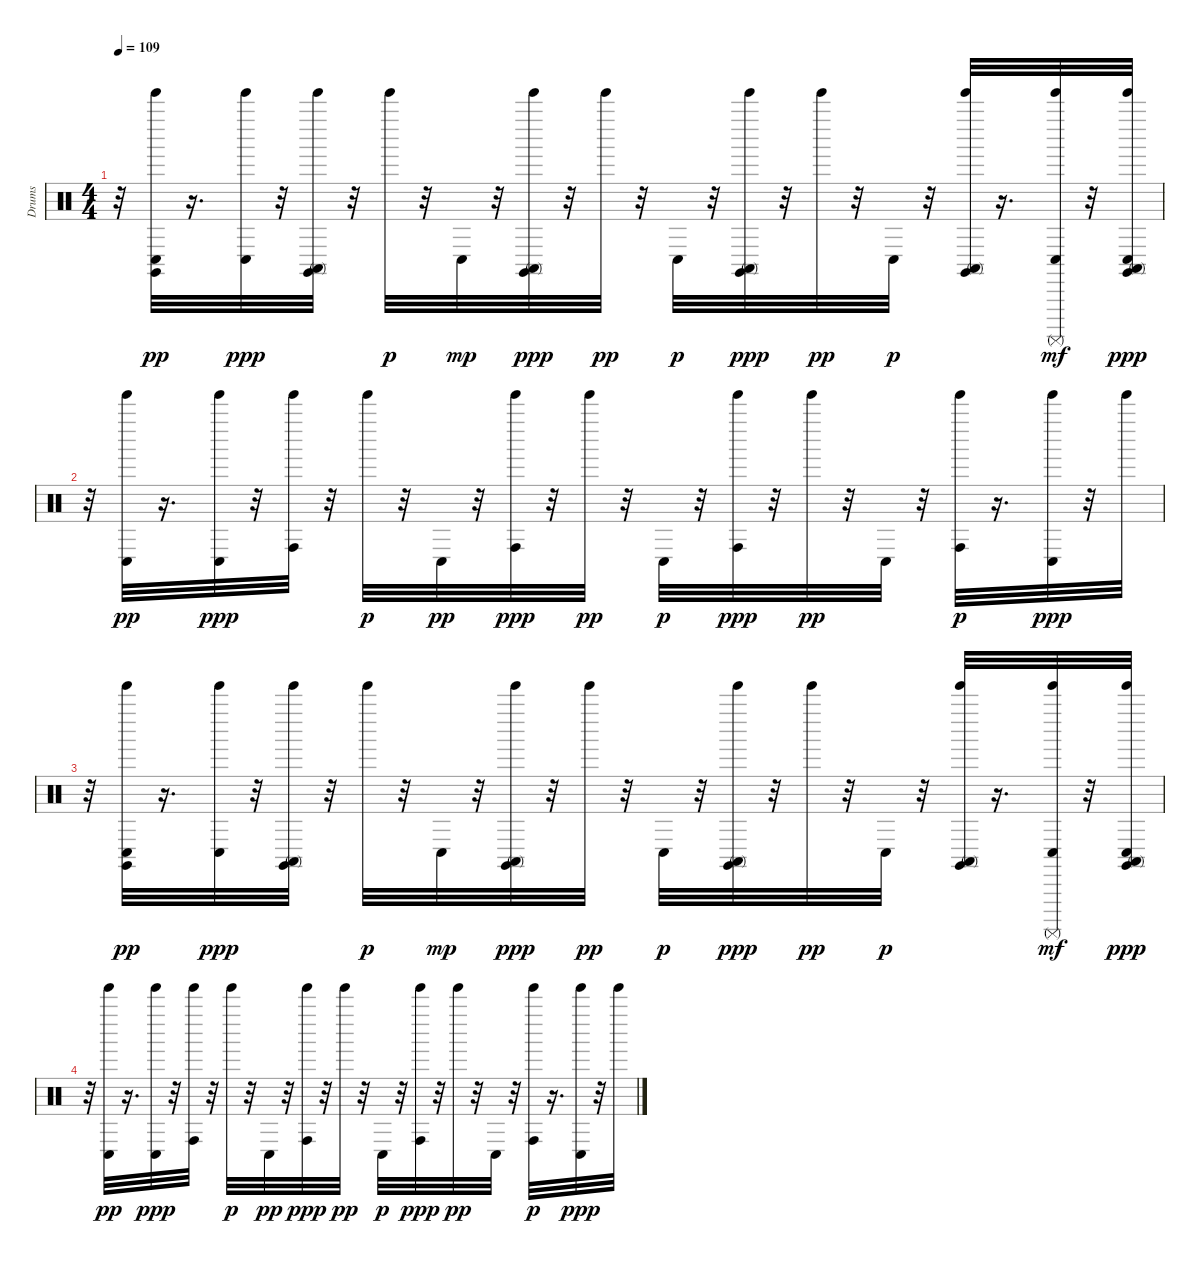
\track ("Drums" "Drums") {instrument percussion}
\staff {score}
\articulation defaults
\ts (4 4)
\tempo 109
\clef neutral
\ks c
r.32{dy ppp} ("Conga low (hit)" "Claves (hit)" "Tinkle Bell (hit)").32{dy pp} r.16{d} ("Conga low (hit)" "Tinkle Bell (hit)").32{dy ppp} r.32 ("Conga high (mute)" "Claves (hit)" "Tinkle Bell (hit)").32 r.32 "Tinkle Bell (hit)".32{dy p} r.32 "Conga low (hit)".32{dy mp} r.32 ("Conga high (mute)" "Claves (hit)" "Tinkle Bell (hit)").32{dy ppp} r.32 "Tinkle Bell (hit)".32{dy pp} r.32 "Conga low (hit)".32{dy p} r.32 ("Conga high (mute)" "Claves (hit)" "Tinkle Bell (hit)").32{dy ppp} r.32 "Tinkle Bell (hit)".32{dy pp} r.32 "Conga low (hit)".32{dy p} r.32 ("Conga high (mute)" "Claves (hit)" "Tinkle Bell (hit)").32 r.16{d} ("Conga low (hit)" "Tinkle Bell (hit)" "Surdo (mute)").32{dy mf} r.32 ("Conga high (mute)" "Conga low (hit)" "Claves (hit)" "Tinkle Bell (hit)").32{dy ppp} |
r.32 ("Conga low (hit)" "Tinkle Bell (hit)").32{dy pp} r.16{d} ("Conga low (hit)" "Tinkle Bell (hit)").32{dy ppp} r.32 ("Conga high (hit)" "Tinkle Bell (hit)").32 r.32 "Tinkle Bell (hit)".32{dy p} r.32 "Conga low (hit)".32{dy pp} r.32 ("Conga high (hit)" "Tinkle Bell (hit)").32{dy ppp} r.32 "Tinkle Bell (hit)".32{dy pp} r.32 "Conga low (hit)".32{dy p} r.32 ("Conga high (hit)" "Tinkle Bell (hit)").32{dy ppp} r.32 "Tinkle Bell (hit)".32{dy pp} r.32 "Conga low (hit)".32 r.32 ("Conga high (hit)" "Tinkle Bell (hit)").32{dy p} r.16{d} ("Conga low (hit)" "Tinkle Bell (hit)").32{dy ppp} r.32 "Tinkle Bell (hit)".32 |
r.32 ("Conga low (hit)" "Claves (hit)" "Tinkle Bell (hit)").32{dy pp} r.16{d} ("Conga low (hit)" "Tinkle Bell (hit)").32{dy ppp} r.32 ("Conga high (mute)" "Claves (hit)" "Tinkle Bell (hit)").32 r.32 "Tinkle Bell (hit)".32{dy p} r.32 "Conga low (hit)".32{dy mp} r.32 ("Conga high (mute)" "Claves (hit)" "Tinkle Bell (hit)").32{dy ppp} r.32 "Tinkle Bell (hit)".32{dy pp} r.32 "Conga low (hit)".32{dy p} r.32 ("Conga high (mute)" "Claves (hit)" "Tinkle Bell (hit)").32{dy ppp} r.32 "Tinkle Bell (hit)".32{dy pp} r.32 "Conga low (hit)".32{dy p} r.32 ("Conga high (mute)" "Claves (hit)" "Tinkle Bell (hit)").32 r.16{d} ("Conga low (hit)" "Tinkle Bell (hit)" "Surdo (mute)").32{dy mf} r.32 ("Conga high (mute)" "Conga low (hit)" "Claves (hit)" "Tinkle Bell (hit)").32{dy ppp} |
r.32 ("Conga low (hit)" "Tinkle Bell (hit)").32{dy pp} r.16{d} ("Conga low (hit)" "Tinkle Bell (hit)").32{dy ppp} r.32 ("Conga high (hit)" "Tinkle Bell (hit)").32 r.32 "Tinkle Bell (hit)".32{dy p} r.32 "Conga low (hit)".32{dy pp} r.32 ("Conga high (hit)" "Tinkle Bell (hit)").32{dy ppp} r.32 "Tinkle Bell (hit)".32{dy pp} r.32 "Conga low (hit)".32{dy p} r.32 ("Conga high (hit)" "Tinkle Bell (hit)").32{dy ppp} r.32 "Tinkle Bell (hit)".32{dy pp} r.32 "Conga low (hit)".32 r.32 ("Conga high (hit)" "Tinkle Bell (hit)").32{dy p} r.16{d} ("Conga low (hit)" "Tinkle Bell (hit)").32{dy ppp} r.32 "Tinkle Bell (hit)".32
